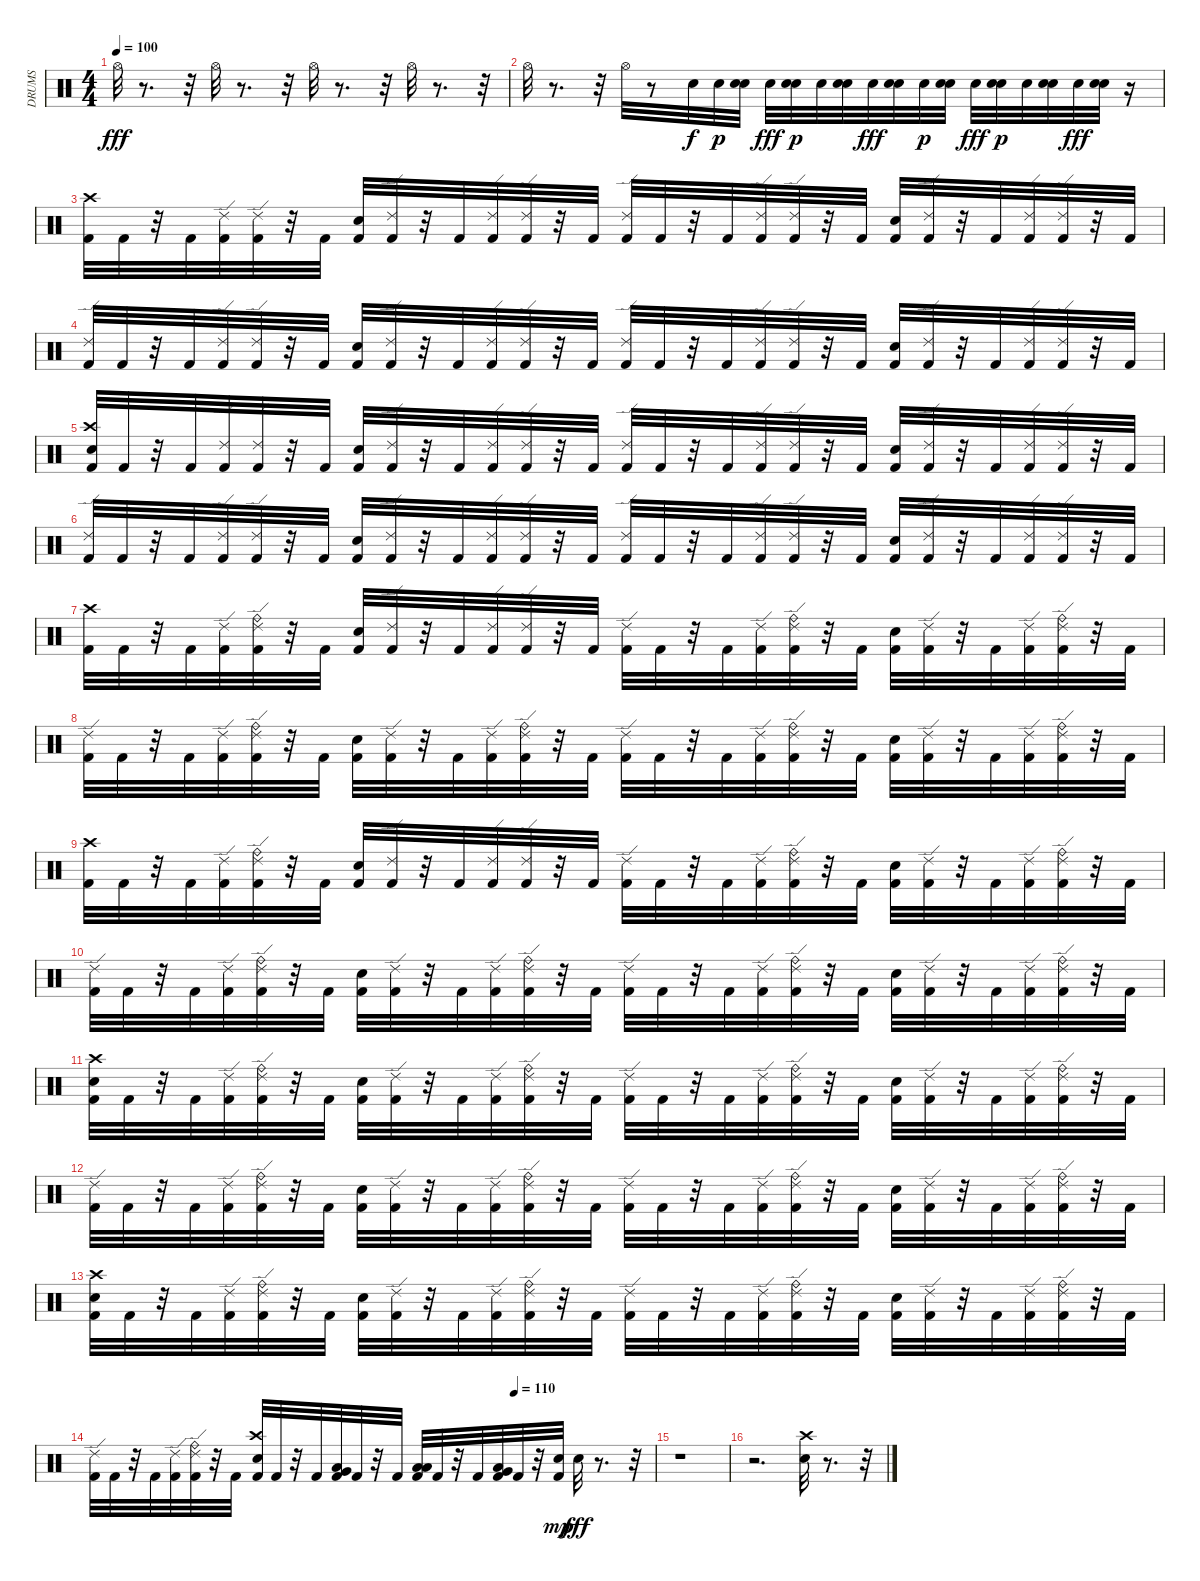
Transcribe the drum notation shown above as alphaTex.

\track ("DRUMS" "DRUMS") {instrument percussion}
\staff {score}
\articulation defaults
\ts (4 4)
\tempo 100
\clef neutral
\ks c "Hi-Hat (open)".32{dy fff}
r.8{d} r.32 "Hi-Hat (open)".32 r.8{d} r.32 "Hi-Hat (open)".32 r.8{d} r.32 "Hi-Hat (open)".32 r.8{d} r.32 |
"Hi-Hat (open)".32 r.8{d} r.32 "Hi-Hat (open)".32 r.8 "Electric Snare (hit)".32{dy f} "Electric Snare (hit)".32{dy p} ("Electric Snare (hit)" "Electric Snare (hit)").32 "Electric Snare (hit)".32{dy fff} ("Electric Snare (hit)" "Electric Snare (hit)").32{dy p} "Electric Snare (hit)".32 ("Electric Snare (hit)" "Electric Snare (hit)").32 "Electric Snare (hit)".32{dy fff} ("Electric Snare (hit)" "Electric Snare (hit)").32 "Electric Snare (hit)".32{dy p} ("Electric Snare (hit)" "Electric Snare (hit)").32 "Electric Snare (hit)".32{dy fff} ("Electric Snare (hit)" "Electric Snare (hit)").32{dy p} "Electric Snare (hit)".32 ("Electric Snare (hit)" "Electric Snare (hit)").32 "Electric Snare (hit)".32{dy fff} ("Electric Snare (hit)" "Electric Snare (hit)").32 r.16 |
("Crash high (hit)" "Kick (hit) 2").32 "Kick (hit) 2".32 r.32 "Kick (hit) 2".32 ("Ride (edge) 2" "Kick (hit) 2").32 ("Ride (edge) 2" "Kick (hit) 2").32 r.32 "Kick (hit) 2".32 ("Electric Snare (hit)" "Kick (hit) 2").32 ("Ride (edge) 2" "Kick (hit) 2").32 r.32 "Kick (hit) 2".32 ("Ride (edge) 2" "Kick (hit) 2").32 ("Ride (edge) 2" "Kick (hit) 2").32 r.32 "Kick (hit) 2".32 ("Ride (edge) 2" "Kick (hit) 2").32 "Kick (hit) 2".32 r.32 "Kick (hit) 2".32 ("Ride (edge) 2" "Kick (hit) 2").32 ("Ride (edge) 2" "Kick (hit) 2").32 r.32 "Kick (hit) 2".32 ("Electric Snare (hit)" "Kick (hit) 2").32 ("Ride (edge) 2" "Kick (hit) 2").32 r.32 "Kick (hit) 2".32 ("Ride (edge) 2" "Kick (hit) 2").32 ("Ride (edge) 2" "Kick (hit) 2").32 r.32 "Kick (hit) 2".32 |
("Ride (edge) 2" "Kick (hit) 2").32 "Kick (hit) 2".32 r.32 "Kick (hit) 2".32 ("Ride (edge) 2" "Kick (hit) 2").32 ("Ride (edge) 2" "Kick (hit) 2").32 r.32 "Kick (hit) 2".32 ("Electric Snare (hit)" "Kick (hit) 2").32 ("Ride (edge) 2" "Kick (hit) 2").32 r.32 "Kick (hit) 2".32 ("Ride (edge) 2" "Kick (hit) 2").32 ("Ride (edge) 2" "Kick (hit) 2").32 r.32 "Kick (hit) 2".32 ("Ride (edge) 2" "Kick (hit) 2").32 "Kick (hit) 2".32 r.32 "Kick (hit) 2".32 ("Ride (edge) 2" "Kick (hit) 2").32 ("Ride (edge) 2" "Kick (hit) 2").32 r.32 "Kick (hit) 2".32 ("Electric Snare (hit)" "Kick (hit) 2").32 ("Ride (edge) 2" "Kick (hit) 2").32 r.32 "Kick (hit) 2".32 ("Ride (edge) 2" "Kick (hit) 2").32 ("Ride (edge) 2" "Kick (hit) 2").32 r.32 "Kick (hit) 2".32 |
("Crash high (hit)" "Electric Snare (hit)" "Kick (hit) 2").32 "Kick (hit) 2".32 r.32 "Kick (hit) 2".32 ("Ride (edge) 2" "Kick (hit) 2").32 ("Ride (edge) 2" "Kick (hit) 2").32 r.32 "Kick (hit) 2".32 ("Electric Snare (hit)" "Kick (hit) 2").32 ("Ride (edge) 2" "Kick (hit) 2").32 r.32 "Kick (hit) 2".32 ("Ride (edge) 2" "Kick (hit) 2").32 ("Ride (edge) 2" "Kick (hit) 2").32 r.32 "Kick (hit) 2".32 ("Ride (edge) 2" "Kick (hit) 2").32 "Kick (hit) 2".32 r.32 "Kick (hit) 2".32 ("Ride (edge) 2" "Kick (hit) 2").32 ("Ride (edge) 2" "Kick (hit) 2").32 r.32 "Kick (hit) 2".32 ("Electric Snare (hit)" "Kick (hit) 2").32 ("Ride (edge) 2" "Kick (hit) 2").32 r.32 "Kick (hit) 2".32 ("Ride (edge) 2" "Kick (hit) 2").32 ("Ride (edge) 2" "Kick (hit) 2").32 r.32 "Kick (hit) 2".32 |
("Ride (edge) 2" "Kick (hit) 2").32 "Kick (hit) 2".32 r.32 "Kick (hit) 2".32 ("Ride (edge) 2" "Kick (hit) 2").32 ("Ride (edge) 2" "Kick (hit) 2").32 r.32 "Kick (hit) 2".32 ("Electric Snare (hit)" "Kick (hit) 2").32 ("Ride (edge) 2" "Kick (hit) 2").32 r.32 "Kick (hit) 2".32 ("Ride (edge) 2" "Kick (hit) 2").32 ("Ride (edge) 2" "Kick (hit) 2").32 r.32 "Kick (hit) 2".32 ("Ride (edge) 2" "Kick (hit) 2").32 "Kick (hit) 2".32 r.32 "Kick (hit) 2".32 ("Ride (edge) 2" "Kick (hit) 2").32 ("Ride (edge) 2" "Kick (hit) 2").32 r.32 "Kick (hit) 2".32 ("Electric Snare (hit)" "Kick (hit) 2").32 ("Ride (edge) 2" "Kick (hit) 2").32 r.32 "Kick (hit) 2".32 ("Ride (edge) 2" "Kick (hit) 2").32 ("Ride (edge) 2" "Kick (hit) 2").32 r.32 "Kick (hit) 2".32 |
("Crash high (hit)" "Kick (hit) 2").32 "Kick (hit) 2".32 r.32 "Kick (hit) 2".32 ("Ride (edge) 2" "Kick (hit) 2").32 ("Ride (bell)" "Ride (edge) 2" "Kick (hit) 2").32 r.32 "Kick (hit) 2".32 ("Electric Snare (hit)" "Kick (hit) 2").32 ("Ride (edge) 2" "Kick (hit) 2").32 r.32 "Kick (hit) 2".32 ("Ride (edge) 2" "Kick (hit) 2").32 ("Ride (edge) 2" "Kick (hit) 2").32 r.32 "Kick (hit) 2".32 ("Ride (edge) 2" "Kick (hit) 2").32 "Kick (hit) 2".32 r.32 "Kick (hit) 2".32 ("Ride (edge) 2" "Kick (hit) 2").32 ("Ride (bell)" "Ride (edge) 2" "Kick (hit) 2").32 r.32 "Kick (hit) 2".32 ("Electric Snare (hit)" "Kick (hit) 2").32 ("Ride (edge) 2" "Kick (hit) 2").32 r.32 "Kick (hit) 2".32 ("Ride (edge) 2" "Kick (hit) 2").32 ("Ride (edge) 2" "Ride (bell)" "Kick (hit) 2").32 r.32 "Kick (hit) 2".32 |
("Ride (edge) 2" "Kick (hit) 2").32 "Kick (hit) 2".32 r.32 "Kick (hit) 2".32 ("Ride (edge) 2" "Kick (hit) 2").32 ("Ride (bell)" "Ride (edge) 2" "Kick (hit) 2").32 r.32 "Kick (hit) 2".32 ("Electric Snare (hit)" "Kick (hit) 2").32 ("Ride (edge) 2" "Kick (hit) 2").32 r.32 "Kick (hit) 2".32 ("Ride (edge) 2" "Kick (hit) 2").32 ("Ride (edge) 2" "Ride (bell)" "Kick (hit) 2").32 r.32 "Kick (hit) 2".32 ("Ride (edge) 2" "Kick (hit) 2").32 "Kick (hit) 2".32 r.32 "Kick (hit) 2".32 ("Ride (edge) 2" "Kick (hit) 2").32 ("Ride (bell)" "Ride (edge) 2" "Kick (hit) 2").32 r.32 "Kick (hit) 2".32 ("Electric Snare (hit)" "Kick (hit) 2").32 ("Ride (edge) 2" "Kick (hit) 2").32 r.32 "Kick (hit) 2".32 ("Ride (edge) 2" "Kick (hit) 2").32 ("Ride (edge) 2" "Ride (bell)" "Kick (hit) 2").32 r.32 "Kick (hit) 2".32 |
("Crash high (hit)" "Kick (hit) 2").32 "Kick (hit) 2".32 r.32 "Kick (hit) 2".32 ("Ride (edge) 2" "Kick (hit) 2").32 ("Ride (bell)" "Ride (edge) 2" "Kick (hit) 2").32 r.32 "Kick (hit) 2".32 ("Electric Snare (hit)" "Kick (hit) 2").32 ("Ride (edge) 2" "Kick (hit) 2").32 r.32 "Kick (hit) 2".32 ("Ride (edge) 2" "Kick (hit) 2").32 ("Ride (edge) 2" "Kick (hit) 2").32 r.32 "Kick (hit) 2".32 ("Ride (edge) 2" "Kick (hit) 2").32 "Kick (hit) 2".32 r.32 "Kick (hit) 2".32 ("Ride (edge) 2" "Kick (hit) 2").32 ("Ride (bell)" "Ride (edge) 2" "Kick (hit) 2").32 r.32 "Kick (hit) 2".32 ("Electric Snare (hit)" "Kick (hit) 2").32 ("Ride (edge) 2" "Kick (hit) 2").32 r.32 "Kick (hit) 2".32 ("Ride (edge) 2" "Kick (hit) 2").32 ("Ride (edge) 2" "Ride (bell)" "Kick (hit) 2").32 r.32 "Kick (hit) 2".32 |
("Ride (edge) 2" "Kick (hit) 2").32 "Kick (hit) 2".32 r.32 "Kick (hit) 2".32 ("Ride (edge) 2" "Kick (hit) 2").32 ("Ride (bell)" "Ride (edge) 2" "Kick (hit) 2").32 r.32 "Kick (hit) 2".32 ("Electric Snare (hit)" "Kick (hit) 2").32 ("Ride (edge) 2" "Kick (hit) 2").32 r.32 "Kick (hit) 2".32 ("Ride (edge) 2" "Kick (hit) 2").32 ("Ride (edge) 2" "Ride (bell)" "Kick (hit) 2").32 r.32 "Kick (hit) 2".32 ("Ride (edge) 2" "Kick (hit) 2").32 "Kick (hit) 2".32 r.32 "Kick (hit) 2".32 ("Ride (edge) 2" "Kick (hit) 2").32 ("Ride (bell)" "Ride (edge) 2" "Kick (hit) 2").32 r.32 "Kick (hit) 2".32 ("Electric Snare (hit)" "Kick (hit) 2").32 ("Ride (edge) 2" "Kick (hit) 2").32 r.32 "Kick (hit) 2".32 ("Ride (edge) 2" "Kick (hit) 2").32 ("Ride (edge) 2" "Ride (bell)" "Kick (hit) 2").32 r.32 "Kick (hit) 2".32 |
("Crash high (hit)" "Electric Snare (hit)" "Kick (hit) 2").32 "Kick (hit) 2".32 r.32 "Kick (hit) 2".32 ("Ride (edge) 2" "Kick (hit) 2").32 ("Ride (bell)" "Ride (edge) 2" "Kick (hit) 2").32 r.32 "Kick (hit) 2".32 ("Electric Snare (hit)" "Kick (hit) 2").32 ("Ride (edge) 2" "Kick (hit) 2").32 r.32 "Kick (hit) 2".32 ("Ride (edge) 2" "Kick (hit) 2").32 ("Ride (edge) 2" "Ride (bell)" "Kick (hit) 2").32 r.32 "Kick (hit) 2".32 ("Ride (edge) 2" "Kick (hit) 2").32 "Kick (hit) 2".32 r.32 "Kick (hit) 2".32 ("Ride (edge) 2" "Kick (hit) 2").32 ("Ride (bell)" "Ride (edge) 2" "Kick (hit) 2").32 r.32 "Kick (hit) 2".32 ("Electric Snare (hit)" "Kick (hit) 2").32 ("Ride (edge) 2" "Kick (hit) 2").32 r.32 "Kick (hit) 2".32 ("Ride (edge) 2" "Kick (hit) 2").32 ("Ride (edge) 2" "Ride (bell)" "Kick (hit) 2").32 r.32 "Kick (hit) 2".32 |
("Ride (edge) 2" "Kick (hit) 2").32 "Kick (hit) 2".32 r.32 "Kick (hit) 2".32 ("Ride (edge) 2" "Kick (hit) 2").32 ("Ride (bell)" "Ride (edge) 2" "Kick (hit) 2").32 r.32 "Kick (hit) 2".32 ("Electric Snare (hit)" "Kick (hit) 2").32 ("Ride (edge) 2" "Kick (hit) 2").32 r.32 "Kick (hit) 2".32 ("Ride (edge) 2" "Kick (hit) 2").32 ("Ride (edge) 2" "Ride (bell)" "Kick (hit) 2").32 r.32 "Kick (hit) 2".32 ("Ride (edge) 2" "Kick (hit) 2").32 "Kick (hit) 2".32 r.32 "Kick (hit) 2".32 ("Ride (edge) 2" "Kick (hit) 2").32 ("Ride (bell)" "Ride (edge) 2" "Kick (hit) 2").32 r.32 "Kick (hit) 2".32 ("Electric Snare (hit)" "Kick (hit) 2").32 ("Ride (edge) 2" "Kick (hit) 2").32 r.32 "Kick (hit) 2".32 ("Ride (edge) 2" "Kick (hit) 2").32 ("Ride (edge) 2" "Ride (bell)" "Kick (hit) 2").32 r.32 "Kick (hit) 2".32 |
("Crash high (hit)" "Electric Snare (hit)" "Kick (hit) 2").32 "Kick (hit) 2".32 r.32 "Kick (hit) 2".32 ("Ride (edge) 2" "Kick (hit) 2").32 ("Ride (bell)" "Ride (edge) 2" "Kick (hit) 2").32 r.32 "Kick (hit) 2".32 ("Electric Snare (hit)" "Kick (hit) 2").32 ("Ride (edge) 2" "Kick (hit) 2").32 r.32 "Kick (hit) 2".32 ("Ride (edge) 2" "Kick (hit) 2").32 ("Ride (edge) 2" "Ride (bell)" "Kick (hit) 2").32 r.32 "Kick (hit) 2".32 ("Ride (edge) 2" "Kick (hit) 2").32 "Kick (hit) 2".32 r.32 "Kick (hit) 2".32 ("Ride (edge) 2" "Kick (hit) 2").32 ("Ride (bell)" "Ride (edge) 2" "Kick (hit) 2").32 r.32 "Kick (hit) 2".32 ("Electric Snare (hit)" "Kick (hit) 2").32 ("Ride (edge) 2" "Kick (hit) 2").32 r.32 "Kick (hit) 2".32 ("Ride (edge) 2" "Kick (hit) 2").32 ("Ride (edge) 2" "Ride (bell)" "Kick (hit) 2").32 r.32 "Kick (hit) 2".32 |
\tempo (110 0.75)
("Ride (edge) 2" "Kick (hit) 2").32 "Kick (hit) 2".32 r.32 "Kick (hit) 2".32 ("Ride (edge) 2" "Kick (hit) 2").32 ("Ride (bell)" "Ride (edge) 2" "Kick (hit) 2").32 r.32 "Kick (hit) 2".32 ("Crash high (hit)" "Electric Snare (hit)" "Kick (hit) 2").32 "Kick (hit) 2".32 r.32 "Kick (hit) 2".32 ("Low Tom (hit)" "Very Low Tom (hit)" "Kick (hit) 2").32 "Kick (hit) 2".32 r.32 "Kick (hit) 2".32 ("Low Tom (hit)" "Low Floor Tom (hit)" "Kick (hit) 2").32 "Kick (hit) 2".32 r.32 "Kick (hit) 2".32 ("Very Low Tom (hit)" "Low Floor Tom (hit)" "Kick (hit) 2").32 "Kick (hit) 2".32 r.32 ("Kick (hit) 2" "Electric Snare (hit)").32{dy mp} "Electric Snare (hit)".32{dy fff} r.8{d} r.32 |
r.1 |
r.2{d} ("Crash high (hit)" "Electric Snare (hit)").32 r.8{d} r.32
